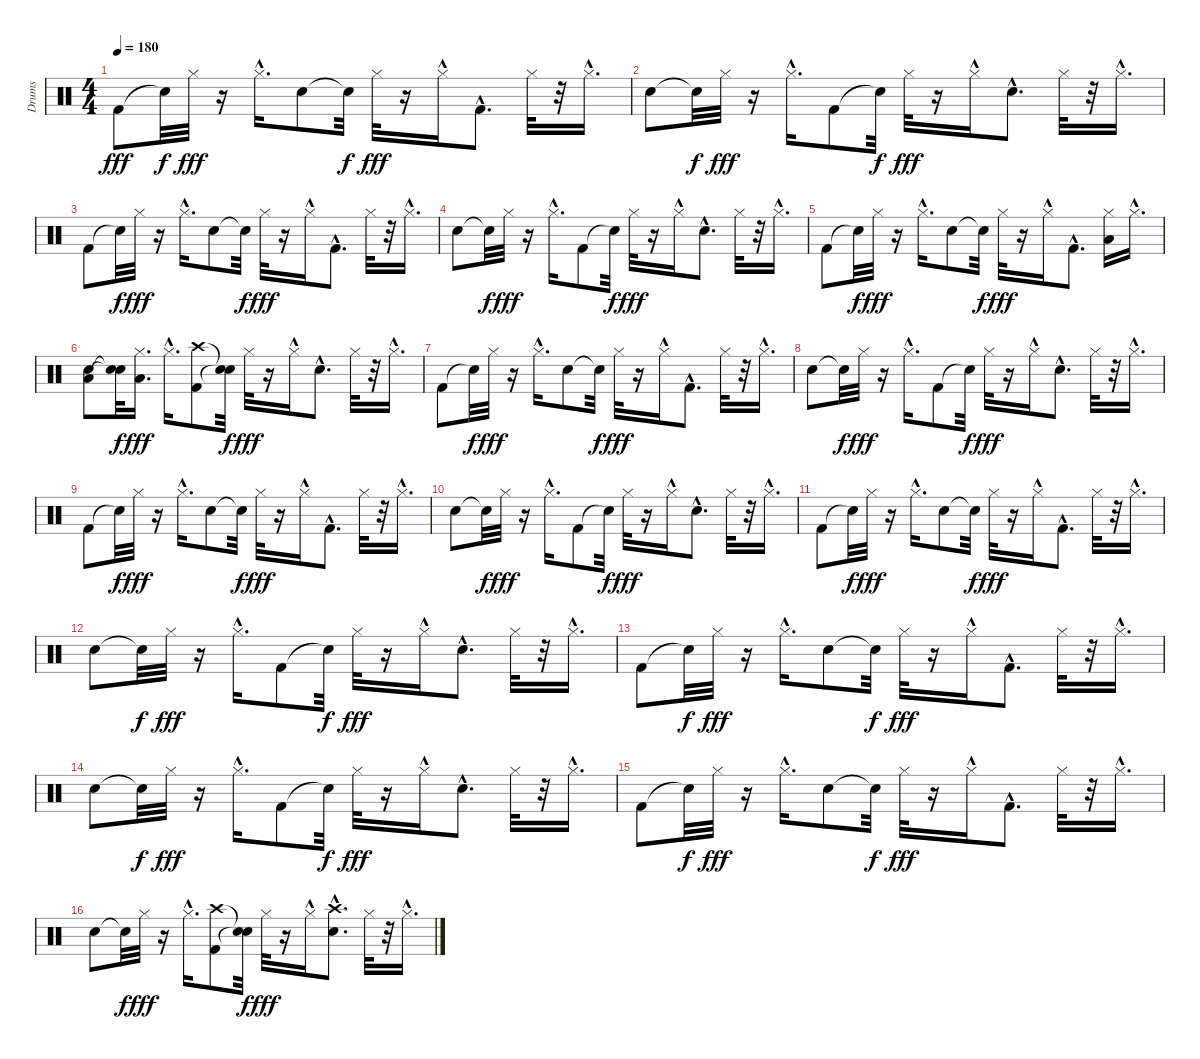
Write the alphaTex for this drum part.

\track ("Drums" "Drums") {instrument percussion}
\staff {score}
\articulation defaults
\ts (4 4)
\tempo 180
\clef neutral
\ks c "Kick (hit) 2".8{dy fff} "Snare (hit)"{t}.32{dy f} "Hi-Hat (closed)".32{dy fff}
r.16 "Hi-Hat (closed)"{hac}.16{d} "Snare (hit) 2".8 "Snare (hit)"{t}.32{dy f} "Hi-Hat (closed)".32{dy fff} r.16 "Hi-Hat (closed)"{hac}.16 "Kick (hit) 2"{hac}.8{d} "Hi-Hat (closed)".32 r.32 "Hi-Hat (closed)"{hac}.16{d} |
"Snare (hit) 2".8 "Snare (hit)"{t}.32{dy f} "Hi-Hat (closed)".32{dy fff} r.16 "Hi-Hat (closed)"{hac}.16{d} "Kick (hit) 2".8 "Snare (hit)"{t}.32{dy f} "Hi-Hat (closed)".32{dy fff} r.16 "Hi-Hat (closed)"{hac}.16 "Snare (hit) 2"{hac}.8{d} "Hi-Hat (closed)".32 r.32 "Hi-Hat (closed)"{hac}.16{d} |
"Kick (hit) 2".8 "Snare (hit)"{t}.32{dy f} "Hi-Hat (closed)".32{dy fff} r.16 "Hi-Hat (closed)"{hac}.16{d} "Snare (hit) 2".8 "Snare (hit)"{t}.32{dy f} "Hi-Hat (closed)".32{dy fff} r.16 "Hi-Hat (closed)"{hac}.16 "Kick (hit) 2"{hac}.8{d} "Hi-Hat (closed)".32 r.32 "Hi-Hat (closed)"{hac}.16{d} |
"Snare (hit) 2".8 "Snare (hit)"{t}.32{dy f} "Hi-Hat (closed)".32{dy fff} r.16 "Hi-Hat (closed)"{hac}.16{d} "Kick (hit) 2".8 "Snare (hit)"{t}.32{dy f} "Hi-Hat (closed)".32{dy fff} r.16 "Hi-Hat (closed)"{hac}.16 "Snare (hit) 2"{hac}.8{d} "Hi-Hat (closed)".32 r.32 "Hi-Hat (closed)"{hac}.16{d} |
"Kick (hit) 2".8 "Snare (hit)"{t}.32{dy f} "Hi-Hat (closed)".32{dy fff} r.16 "Hi-Hat (closed)"{hac}.16{d} "Snare (hit) 2".8 "Snare (hit)"{t}.32{dy f} "Hi-Hat (closed)".32{dy fff} r.16 "Hi-Hat (closed)"{hac}.16 "Kick (hit) 2"{hac}.8{d} ("Hi-Hat (closed)" "Low Tom (hit)").16 "Hi-Hat (closed)"{hac}.16{d} |
("Snare (hit) 2" "Low Tom (hit)").8 ("Snare (hit)"{t} "Snare (hit)"{t}).32{dy f} ("Hi-Hat (closed)" "Low Tom (hit)").16{d dy fff} "Hi-Hat (closed)"{hac}.16{d} ("Kick (hit) 2" "Crash high (hit)").8 ("Snare (hit)"{t} "Snare (hit)"{t}).32{dy f} "Hi-Hat (closed)".32{dy fff} r.16 "Hi-Hat (closed)"{hac}.16 "Snare (hit) 2"{hac}.8{d} "Hi-Hat (closed)".32 r.32 "Hi-Hat (closed)"{hac}.16{d} |
"Kick (hit) 2".8 "Snare (hit)"{t}.32{dy f} "Hi-Hat (closed)".32{dy fff} r.16 "Hi-Hat (closed)"{hac}.16{d} "Snare (hit) 2".8 "Snare (hit)"{t}.32{dy f} "Hi-Hat (closed)".32{dy fff} r.16 "Hi-Hat (closed)"{hac}.16 "Kick (hit) 2"{hac}.8{d} "Hi-Hat (closed)".32 r.32 "Hi-Hat (closed)"{hac}.16{d} |
"Snare (hit) 2".8 "Snare (hit)"{t}.32{dy f} "Hi-Hat (closed)".32{dy fff} r.16 "Hi-Hat (closed)"{hac}.16{d} "Kick (hit) 2".8 "Snare (hit)"{t}.32{dy f} "Hi-Hat (closed)".32{dy fff} r.16 "Hi-Hat (closed)"{hac}.16 "Snare (hit) 2"{hac}.8{d} "Hi-Hat (closed)".32 r.32 "Hi-Hat (closed)"{hac}.16{d} |
"Kick (hit) 2".8 "Snare (hit)"{t}.32{dy f} "Hi-Hat (closed)".32{dy fff} r.16 "Hi-Hat (closed)"{hac}.16{d} "Snare (hit) 2".8 "Snare (hit)"{t}.32{dy f} "Hi-Hat (closed)".32{dy fff} r.16 "Hi-Hat (closed)"{hac}.16 "Kick (hit) 2"{hac}.8{d} "Hi-Hat (closed)".32 r.32 "Hi-Hat (closed)"{hac}.16{d} |
"Snare (hit) 2".8 "Snare (hit)"{t}.32{dy f} "Hi-Hat (closed)".32{dy fff} r.16 "Hi-Hat (closed)"{hac}.16{d} "Kick (hit) 2".8 "Snare (hit)"{t}.32{dy f} "Hi-Hat (closed)".32{dy fff} r.16 "Hi-Hat (closed)"{hac}.16 "Snare (hit) 2"{hac}.8{d} "Hi-Hat (closed)".32 r.32 "Hi-Hat (closed)"{hac}.16{d} |
"Kick (hit) 2".8 "Snare (hit)"{t}.32{dy f} "Hi-Hat (closed)".32{dy fff} r.16 "Hi-Hat (closed)"{hac}.16{d} "Snare (hit) 2".8 "Snare (hit)"{t}.32{dy f} "Hi-Hat (closed)".32{dy fff} r.16 "Hi-Hat (closed)"{hac}.16 "Kick (hit) 2"{hac}.8{d} "Hi-Hat (closed)".32 r.32 "Hi-Hat (closed)"{hac}.16{d} |
"Snare (hit) 2".8 "Snare (hit)"{t}.32{dy f} "Hi-Hat (closed)".32{dy fff} r.16 "Hi-Hat (closed)"{hac}.16{d} "Kick (hit) 2".8 "Snare (hit)"{t}.32{dy f} "Hi-Hat (closed)".32{dy fff} r.16 "Hi-Hat (closed)"{hac}.16 "Snare (hit) 2"{hac}.8{d} "Hi-Hat (closed)".32 r.32 "Hi-Hat (closed)"{hac}.16{d} |
"Kick (hit) 2".8 "Snare (hit)"{t}.32{dy f} "Hi-Hat (closed)".32{dy fff} r.16 "Hi-Hat (closed)"{hac}.16{d} "Snare (hit) 2".8 "Snare (hit)"{t}.32{dy f} "Hi-Hat (closed)".32{dy fff} r.16 "Hi-Hat (closed)"{hac}.16 "Kick (hit) 2"{hac}.8{d} "Hi-Hat (closed)".32 r.32 "Hi-Hat (closed)"{hac}.16{d} |
"Snare (hit) 2".8 "Snare (hit)"{t}.32{dy f} "Hi-Hat (closed)".32{dy fff} r.16 "Hi-Hat (closed)"{hac}.16{d} "Kick (hit) 2".8 "Snare (hit)"{t}.32{dy f} "Hi-Hat (closed)".32{dy fff} r.16 "Hi-Hat (closed)"{hac}.16 "Snare (hit) 2"{hac}.8{d} "Hi-Hat (closed)".32 r.32 "Hi-Hat (closed)"{hac}.16{d} |
"Kick (hit) 2".8 "Snare (hit)"{t}.32{dy f} "Hi-Hat (closed)".32{dy fff} r.16 "Hi-Hat (closed)"{hac}.16{d} "Snare (hit) 2".8 "Snare (hit)"{t}.32{dy f} "Hi-Hat (closed)".32{dy fff} r.16 "Hi-Hat (closed)"{hac}.16 "Kick (hit) 2"{hac}.8{d} "Hi-Hat (closed)".32 r.32 "Hi-Hat (closed)"{hac}.16{d} |
"Snare (hit) 2".8 "Snare (hit)"{t}.32{dy f} "Hi-Hat (closed)".32{dy fff} r.16 "Hi-Hat (closed)"{hac}.16{d} ("Kick (hit) 2" "Crash high (hit)").8 ("Snare (hit)"{t} "Snare (hit)"{t}).32{dy f} "Hi-Hat (closed)".32{dy fff} r.16 "Hi-Hat (closed)"{hac}.16 ("Snare (hit) 2"{hac} "Crash high (hit)").8{d} "Hi-Hat (closed)".32 r.32 "Hi-Hat (closed)"{hac}.16{d}
